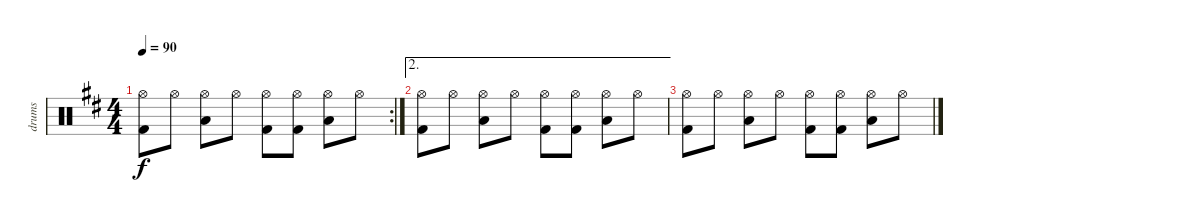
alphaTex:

\track ("drums" "drums") {instrument percussion}
\staff {score}
\articulation defaults
\rc 2
\ts (4 4)
\tempo 90
\clef neutral
\ks d
("Hi-Hat (open)" "Kick (hit) 2").8{dy f} "Hi-Hat (open)".8 ("Hi-Hat (open)" "Low Tom (hit)").8 "Hi-Hat (open)".8 ("Hi-Hat (open)" "Kick (hit) 2").8 ("Hi-Hat (open)" "Kick (hit) 2").8 ("Hi-Hat (open)" "Low Tom (hit)").8 "Hi-Hat (open)".8 |
\ae 2
("Hi-Hat (open)" "Kick (hit) 2").8 "Hi-Hat (open)".8 ("Hi-Hat (open)" "Low Tom (hit)").8 "Hi-Hat (open)".8 ("Hi-Hat (open)" "Kick (hit) 2").8 ("Hi-Hat (open)" "Kick (hit) 2").8 ("Hi-Hat (open)" "Low Tom (hit)").8 "Hi-Hat (open)".8 |
("Hi-Hat (open)" "Kick (hit) 2").8 "Hi-Hat (open)".8 ("Hi-Hat (open)" "Low Tom (hit)").8 "Hi-Hat (open)".8 ("Hi-Hat (open)" "Kick (hit) 2").8 ("Hi-Hat (open)" "Kick (hit) 2").8 ("Hi-Hat (open)" "Low Tom (hit)").8 "Hi-Hat (open)".8
